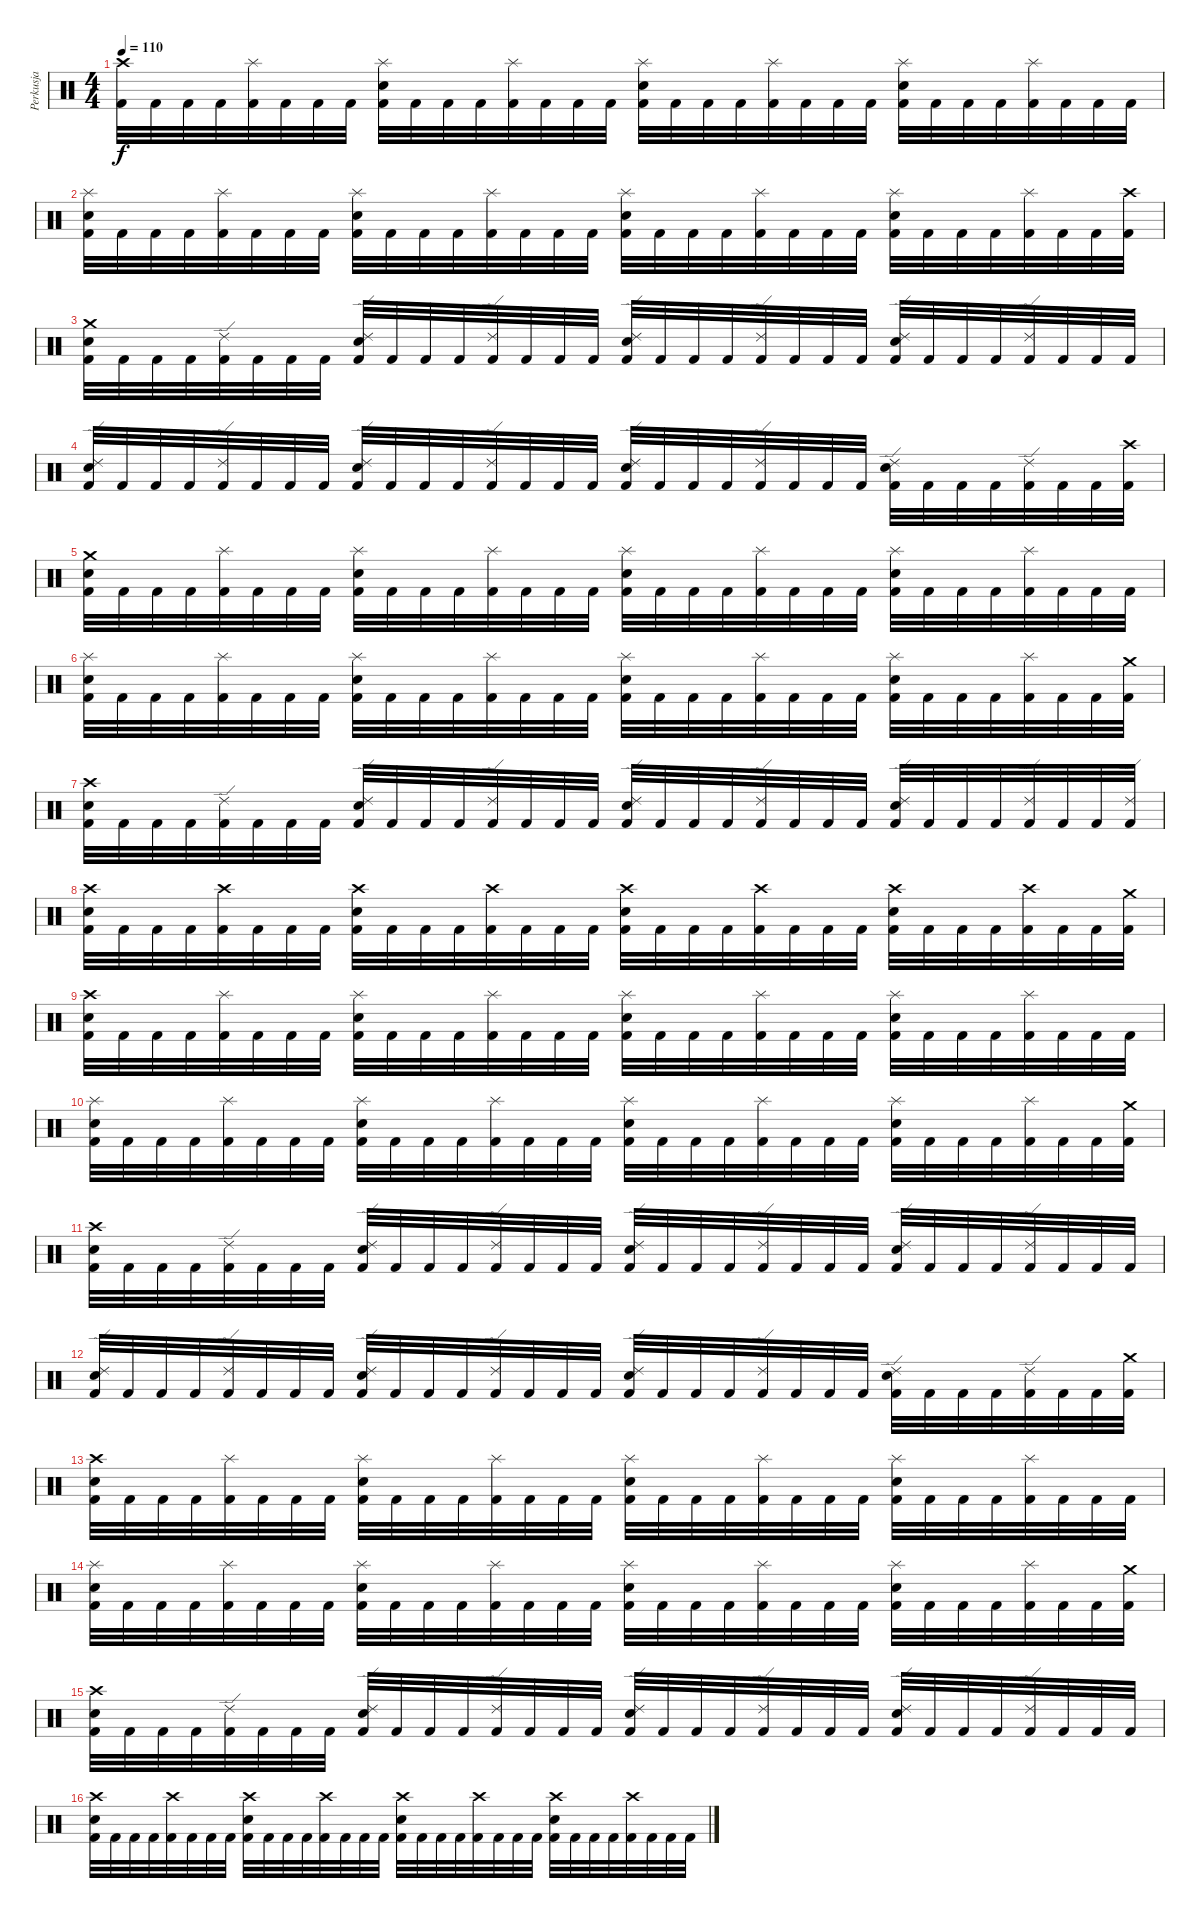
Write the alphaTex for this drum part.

\track ("Perkusja" "Perkusja") {instrument percussion}
\staff {score}
\articulation defaults
\ts (4 4)
\tempo 110
\clef neutral
\ks c
("Crash high (hit)" "Kick (hit) 2").32{dy f} "Kick (hit) 2".32 "Kick (hit) 2".32 "Kick (hit) 2".32 ("Splash (hit)" "Kick (hit) 2").32 "Kick (hit) 2".32 "Kick (hit) 2".32 "Kick (hit) 2".32 ("Splash (hit)" "Snare (hit) 2" "Kick (hit) 2").32 "Kick (hit) 2".32 "Kick (hit) 2".32 "Kick (hit) 2".32 ("Splash (hit)" "Kick (hit) 2").32 "Kick (hit) 2".32 "Kick (hit) 2".32 "Kick (hit) 2".32 ("Splash (hit)" "Snare (hit) 2" "Kick (hit) 2").32 "Kick (hit) 2".32 "Kick (hit) 2".32 "Kick (hit) 2".32 ("Splash (hit)" "Kick (hit) 2").32 "Kick (hit) 2".32 "Kick (hit) 2".32 "Kick (hit) 2".32 ("Splash (hit)" "Snare (hit) 2" "Kick (hit) 2").32 "Kick (hit) 2".32 "Kick (hit) 2".32 "Kick (hit) 2".32 ("Splash (hit)" "Kick (hit) 2").32 "Kick (hit) 2".32 "Kick (hit) 2".32 "Kick (hit) 2".32 |
("Splash (hit)" "Snare (hit) 2" "Kick (hit) 2").32 "Kick (hit) 2".32 "Kick (hit) 2".32 "Kick (hit) 2".32 ("Splash (hit)" "Kick (hit) 2").32 "Kick (hit) 2".32 "Kick (hit) 2".32 "Kick (hit) 2".32 ("Splash (hit)" "Snare (hit) 2" "Kick (hit) 2").32 "Kick (hit) 2".32 "Kick (hit) 2".32 "Kick (hit) 2".32 ("Splash (hit)" "Kick (hit) 2").32 "Kick (hit) 2".32 "Kick (hit) 2".32 "Kick (hit) 2".32 ("Splash (hit)" "Snare (hit) 2" "Kick (hit) 2").32 "Kick (hit) 2".32 "Kick (hit) 2".32 "Kick (hit) 2".32 ("Splash (hit)" "Kick (hit) 2").32 "Kick (hit) 2".32 "Kick (hit) 2".32 "Kick (hit) 2".32 ("Splash (hit)" "Snare (hit) 2" "Kick (hit) 2").32 "Kick (hit) 2".32 "Kick (hit) 2".32 "Kick (hit) 2".32 ("Splash (hit)" "Kick (hit) 2").32 "Kick (hit) 2".32 "Kick (hit) 2".32 ("Crash high (hit)" "Kick (hit) 2").32 |
("Crash medium (hit)" "Snare (hit) 2" "Kick (hit) 2").32 "Kick (hit) 2".32 "Kick (hit) 2".32 "Kick (hit) 2".32 ("Ride (edge) 2" "Kick (hit) 2").32 "Kick (hit) 2".32 "Kick (hit) 2".32 "Kick (hit) 2".32 ("Ride (edge) 2" "Snare (hit) 2" "Kick (hit) 2").32 "Kick (hit) 2".32 "Kick (hit) 2".32 "Kick (hit) 2".32 ("Ride (edge) 2" "Kick (hit) 2").32 "Kick (hit) 2".32 "Kick (hit) 2".32 "Kick (hit) 2".32 ("Ride (edge) 2" "Snare (hit) 2" "Kick (hit) 2").32 "Kick (hit) 2".32 "Kick (hit) 2".32 "Kick (hit) 2".32 ("Ride (edge) 2" "Kick (hit) 2").32 "Kick (hit) 2".32 "Kick (hit) 2".32 "Kick (hit) 2".32 ("Ride (edge) 2" "Snare (hit) 2" "Kick (hit) 2").32 "Kick (hit) 2".32 "Kick (hit) 2".32 "Kick (hit) 2".32 ("Ride (edge) 2" "Kick (hit) 2").32 "Kick (hit) 2".32 "Kick (hit) 2".32 "Kick (hit) 2".32 |
("Ride (edge) 2" "Snare (hit) 2" "Kick (hit) 2").32 "Kick (hit) 2".32 "Kick (hit) 2".32 "Kick (hit) 2".32 ("Ride (edge) 2" "Kick (hit) 2").32 "Kick (hit) 2".32 "Kick (hit) 2".32 "Kick (hit) 2".32 ("Ride (edge) 2" "Snare (hit) 2" "Kick (hit) 2").32 "Kick (hit) 2".32 "Kick (hit) 2".32 "Kick (hit) 2".32 ("Ride (edge) 2" "Kick (hit) 2").32 "Kick (hit) 2".32 "Kick (hit) 2".32 "Kick (hit) 2".32 ("Ride (edge) 2" "Snare (hit) 2" "Kick (hit) 2").32 "Kick (hit) 2".32 "Kick (hit) 2".32 "Kick (hit) 2".32 ("Ride (edge) 2" "Kick (hit) 2").32 "Kick (hit) 2".32 "Kick (hit) 2".32 "Kick (hit) 2".32 ("Ride (edge) 2" "Snare (hit) 2" "Kick (hit) 2").32 "Kick (hit) 2".32 "Kick (hit) 2".32 "Kick (hit) 2".32 ("Ride (edge) 2" "Kick (hit) 2").32 "Kick (hit) 2".32 "Kick (hit) 2".32 ("Crash high (hit)" "Kick (hit) 2").32 |
("Crash medium (hit)" "Snare (hit) 2" "Kick (hit) 2").32 "Kick (hit) 2".32 "Kick (hit) 2".32 "Kick (hit) 2".32 ("Splash (hit)" "Kick (hit) 2").32 "Kick (hit) 2".32 "Kick (hit) 2".32 "Kick (hit) 2".32 ("Splash (hit)" "Snare (hit) 2" "Kick (hit) 2").32 "Kick (hit) 2".32 "Kick (hit) 2".32 "Kick (hit) 2".32 ("Splash (hit)" "Kick (hit) 2").32 "Kick (hit) 2".32 "Kick (hit) 2".32 "Kick (hit) 2".32 ("Splash (hit)" "Snare (hit) 2" "Kick (hit) 2").32 "Kick (hit) 2".32 "Kick (hit) 2".32 "Kick (hit) 2".32 ("Splash (hit)" "Kick (hit) 2").32 "Kick (hit) 2".32 "Kick (hit) 2".32 "Kick (hit) 2".32 ("Splash (hit)" "Snare (hit) 2" "Kick (hit) 2").32 "Kick (hit) 2".32 "Kick (hit) 2".32 "Kick (hit) 2".32 ("Splash (hit)" "Kick (hit) 2").32 "Kick (hit) 2".32 "Kick (hit) 2".32 "Kick (hit) 2".32 |
("Splash (hit)" "Snare (hit) 2" "Kick (hit) 2").32 "Kick (hit) 2".32 "Kick (hit) 2".32 "Kick (hit) 2".32 ("Splash (hit)" "Kick (hit) 2").32 "Kick (hit) 2".32 "Kick (hit) 2".32 "Kick (hit) 2".32 ("Splash (hit)" "Snare (hit) 2" "Kick (hit) 2").32 "Kick (hit) 2".32 "Kick (hit) 2".32 "Kick (hit) 2".32 ("Splash (hit)" "Kick (hit) 2").32 "Kick (hit) 2".32 "Kick (hit) 2".32 "Kick (hit) 2".32 ("Splash (hit)" "Snare (hit) 2" "Kick (hit) 2").32 "Kick (hit) 2".32 "Kick (hit) 2".32 "Kick (hit) 2".32 ("Splash (hit)" "Kick (hit) 2").32 "Kick (hit) 2".32 "Kick (hit) 2".32 "Kick (hit) 2".32 ("Splash (hit)" "Snare (hit) 2" "Kick (hit) 2").32 "Kick (hit) 2".32 "Kick (hit) 2".32 "Kick (hit) 2".32 ("Splash (hit)" "Kick (hit) 2").32 "Kick (hit) 2".32 "Kick (hit) 2".32 ("Crash medium (hit)" "Kick (hit) 2").32 |
("Crash high (hit)" "Snare (hit) 2" "Kick (hit) 2").32 "Kick (hit) 2".32 "Kick (hit) 2".32 "Kick (hit) 2".32 ("Ride (edge) 2" "Kick (hit) 2").32 "Kick (hit) 2".32 "Kick (hit) 2".32 "Kick (hit) 2".32 ("Ride (edge) 2" "Snare (hit) 2" "Kick (hit) 2").32 "Kick (hit) 2".32 "Kick (hit) 2".32 "Kick (hit) 2".32 ("Ride (edge) 2" "Kick (hit) 2").32 "Kick (hit) 2".32 "Kick (hit) 2".32 "Kick (hit) 2".32 ("Ride (edge) 2" "Snare (hit) 2" "Kick (hit) 2").32 "Kick (hit) 2".32 "Kick (hit) 2".32 "Kick (hit) 2".32 ("Ride (edge) 2" "Kick (hit) 2").32 "Kick (hit) 2".32 "Kick (hit) 2".32 "Kick (hit) 2".32 ("Ride (edge) 2" "Snare (hit) 2" "Kick (hit) 2").32 "Kick (hit) 2".32 "Kick (hit) 2".32 "Kick (hit) 2".32 ("Ride (edge) 2" "Kick (hit) 2").32 "Kick (hit) 2".32 "Kick (hit) 2".32 ("Ride (edge) 2" "Kick (hit) 2").32 |
("Crash high (hit)" "Snare (hit) 2" "Kick (hit) 2").32 "Kick (hit) 2".32 "Kick (hit) 2".32 "Kick (hit) 2".32 ("Crash high (hit)" "Kick (hit) 2").32 "Kick (hit) 2".32 "Kick (hit) 2".32 "Kick (hit) 2".32 ("Crash high (hit)" "Snare (hit) 2" "Kick (hit) 2").32 "Kick (hit) 2".32 "Kick (hit) 2".32 "Kick (hit) 2".32 ("Crash high (hit)" "Kick (hit) 2").32 "Kick (hit) 2".32 "Kick (hit) 2".32 "Kick (hit) 2".32 ("Crash high (hit)" "Snare (hit) 2" "Kick (hit) 2").32 "Kick (hit) 2".32 "Kick (hit) 2".32 "Kick (hit) 2".32 ("Crash high (hit)" "Kick (hit) 2").32 "Kick (hit) 2".32 "Kick (hit) 2".32 "Kick (hit) 2".32 ("Crash high (hit)" "Snare (hit) 2" "Kick (hit) 2").32 "Kick (hit) 2".32 "Kick (hit) 2".32 "Kick (hit) 2".32 ("Crash high (hit)" "Kick (hit) 2").32 "Kick (hit) 2".32 "Kick (hit) 2".32 ("Crash medium (hit)" "Kick (hit) 2").32 |
("Crash high (hit)" "Snare (hit) 2" "Kick (hit) 2").32 "Kick (hit) 2".32 "Kick (hit) 2".32 "Kick (hit) 2".32 ("Splash (hit)" "Kick (hit) 2").32 "Kick (hit) 2".32 "Kick (hit) 2".32 "Kick (hit) 2".32 ("Splash (hit)" "Snare (hit) 2" "Kick (hit) 2").32 "Kick (hit) 2".32 "Kick (hit) 2".32 "Kick (hit) 2".32 ("Splash (hit)" "Kick (hit) 2").32 "Kick (hit) 2".32 "Kick (hit) 2".32 "Kick (hit) 2".32 ("Splash (hit)" "Snare (hit) 2" "Kick (hit) 2").32 "Kick (hit) 2".32 "Kick (hit) 2".32 "Kick (hit) 2".32 ("Splash (hit)" "Kick (hit) 2").32 "Kick (hit) 2".32 "Kick (hit) 2".32 "Kick (hit) 2".32 ("Splash (hit)" "Snare (hit) 2" "Kick (hit) 2").32 "Kick (hit) 2".32 "Kick (hit) 2".32 "Kick (hit) 2".32 ("Splash (hit)" "Kick (hit) 2").32 "Kick (hit) 2".32 "Kick (hit) 2".32 "Kick (hit) 2".32 |
("Splash (hit)" "Snare (hit) 2" "Kick (hit) 2").32 "Kick (hit) 2".32 "Kick (hit) 2".32 "Kick (hit) 2".32 ("Splash (hit)" "Kick (hit) 2").32 "Kick (hit) 2".32 "Kick (hit) 2".32 "Kick (hit) 2".32 ("Splash (hit)" "Snare (hit) 2" "Kick (hit) 2").32 "Kick (hit) 2".32 "Kick (hit) 2".32 "Kick (hit) 2".32 ("Splash (hit)" "Kick (hit) 2").32 "Kick (hit) 2".32 "Kick (hit) 2".32 "Kick (hit) 2".32 ("Splash (hit)" "Snare (hit) 2" "Kick (hit) 2").32 "Kick (hit) 2".32 "Kick (hit) 2".32 "Kick (hit) 2".32 ("Splash (hit)" "Kick (hit) 2").32 "Kick (hit) 2".32 "Kick (hit) 2".32 "Kick (hit) 2".32 ("Splash (hit)" "Snare (hit) 2" "Kick (hit) 2").32 "Kick (hit) 2".32 "Kick (hit) 2".32 "Kick (hit) 2".32 ("Splash (hit)" "Kick (hit) 2").32 "Kick (hit) 2".32 "Kick (hit) 2".32 ("Crash medium (hit)" "Kick (hit) 2").32 |
("Crash high (hit)" "Snare (hit) 2" "Kick (hit) 2").32 "Kick (hit) 2".32 "Kick (hit) 2".32 "Kick (hit) 2".32 ("Ride (edge) 2" "Kick (hit) 2").32 "Kick (hit) 2".32 "Kick (hit) 2".32 "Kick (hit) 2".32 ("Ride (edge) 2" "Snare (hit) 2" "Kick (hit) 2").32 "Kick (hit) 2".32 "Kick (hit) 2".32 "Kick (hit) 2".32 ("Ride (edge) 2" "Kick (hit) 2").32 "Kick (hit) 2".32 "Kick (hit) 2".32 "Kick (hit) 2".32 ("Ride (edge) 2" "Snare (hit) 2" "Kick (hit) 2").32 "Kick (hit) 2".32 "Kick (hit) 2".32 "Kick (hit) 2".32 ("Ride (edge) 2" "Kick (hit) 2").32 "Kick (hit) 2".32 "Kick (hit) 2".32 "Kick (hit) 2".32 ("Ride (edge) 2" "Snare (hit) 2" "Kick (hit) 2").32 "Kick (hit) 2".32 "Kick (hit) 2".32 "Kick (hit) 2".32 ("Ride (edge) 2" "Kick (hit) 2").32 "Kick (hit) 2".32 "Kick (hit) 2".32 "Kick (hit) 2".32 |
("Ride (edge) 2" "Snare (hit) 2" "Kick (hit) 2").32 "Kick (hit) 2".32 "Kick (hit) 2".32 "Kick (hit) 2".32 ("Ride (edge) 2" "Kick (hit) 2").32 "Kick (hit) 2".32 "Kick (hit) 2".32 "Kick (hit) 2".32 ("Ride (edge) 2" "Snare (hit) 2" "Kick (hit) 2").32 "Kick (hit) 2".32 "Kick (hit) 2".32 "Kick (hit) 2".32 ("Ride (edge) 2" "Kick (hit) 2").32 "Kick (hit) 2".32 "Kick (hit) 2".32 "Kick (hit) 2".32 ("Ride (edge) 2" "Snare (hit) 2" "Kick (hit) 2").32 "Kick (hit) 2".32 "Kick (hit) 2".32 "Kick (hit) 2".32 ("Ride (edge) 2" "Kick (hit) 2").32 "Kick (hit) 2".32 "Kick (hit) 2".32 "Kick (hit) 2".32 ("Ride (edge) 2" "Snare (hit) 2" "Kick (hit) 2").32 "Kick (hit) 2".32 "Kick (hit) 2".32 "Kick (hit) 2".32 ("Ride (edge) 2" "Kick (hit) 2").32 "Kick (hit) 2".32 "Kick (hit) 2".32 ("Crash medium (hit)" "Kick (hit) 2").32 |
("Crash high (hit)" "Snare (hit) 2" "Kick (hit) 2").32 "Kick (hit) 2".32 "Kick (hit) 2".32 "Kick (hit) 2".32 ("Splash (hit)" "Kick (hit) 2").32 "Kick (hit) 2".32 "Kick (hit) 2".32 "Kick (hit) 2".32 ("Splash (hit)" "Snare (hit) 2" "Kick (hit) 2").32 "Kick (hit) 2".32 "Kick (hit) 2".32 "Kick (hit) 2".32 ("Splash (hit)" "Kick (hit) 2").32 "Kick (hit) 2".32 "Kick (hit) 2".32 "Kick (hit) 2".32 ("Splash (hit)" "Snare (hit) 2" "Kick (hit) 2").32 "Kick (hit) 2".32 "Kick (hit) 2".32 "Kick (hit) 2".32 ("Splash (hit)" "Kick (hit) 2").32 "Kick (hit) 2".32 "Kick (hit) 2".32 "Kick (hit) 2".32 ("Splash (hit)" "Snare (hit) 2" "Kick (hit) 2").32 "Kick (hit) 2".32 "Kick (hit) 2".32 "Kick (hit) 2".32 ("Splash (hit)" "Kick (hit) 2").32 "Kick (hit) 2".32 "Kick (hit) 2".32 "Kick (hit) 2".32 |
("Splash (hit)" "Snare (hit) 2" "Kick (hit) 2").32 "Kick (hit) 2".32 "Kick (hit) 2".32 "Kick (hit) 2".32 ("Splash (hit)" "Kick (hit) 2").32 "Kick (hit) 2".32 "Kick (hit) 2".32 "Kick (hit) 2".32 ("Splash (hit)" "Snare (hit) 2" "Kick (hit) 2").32 "Kick (hit) 2".32 "Kick (hit) 2".32 "Kick (hit) 2".32 ("Splash (hit)" "Kick (hit) 2").32 "Kick (hit) 2".32 "Kick (hit) 2".32 "Kick (hit) 2".32 ("Splash (hit)" "Snare (hit) 2" "Kick (hit) 2").32 "Kick (hit) 2".32 "Kick (hit) 2".32 "Kick (hit) 2".32 ("Splash (hit)" "Kick (hit) 2").32 "Kick (hit) 2".32 "Kick (hit) 2".32 "Kick (hit) 2".32 ("Splash (hit)" "Snare (hit) 2" "Kick (hit) 2").32 "Kick (hit) 2".32 "Kick (hit) 2".32 "Kick (hit) 2".32 ("Splash (hit)" "Kick (hit) 2").32 "Kick (hit) 2".32 "Kick (hit) 2".32 ("Crash medium (hit)" "Kick (hit) 2").32 |
("Crash high (hit)" "Snare (hit) 2" "Kick (hit) 2").32 "Kick (hit) 2".32 "Kick (hit) 2".32 "Kick (hit) 2".32 ("Ride (edge) 2" "Kick (hit) 2").32 "Kick (hit) 2".32 "Kick (hit) 2".32 "Kick (hit) 2".32 ("Ride (edge) 2" "Snare (hit) 2" "Kick (hit) 2").32 "Kick (hit) 2".32 "Kick (hit) 2".32 "Kick (hit) 2".32 ("Ride (edge) 2" "Kick (hit) 2").32 "Kick (hit) 2".32 "Kick (hit) 2".32 "Kick (hit) 2".32 ("Ride (edge) 2" "Snare (hit) 2" "Kick (hit) 2").32 "Kick (hit) 2".32 "Kick (hit) 2".32 "Kick (hit) 2".32 ("Ride (edge) 2" "Kick (hit) 2").32 "Kick (hit) 2".32 "Kick (hit) 2".32 "Kick (hit) 2".32 ("Ride (edge) 2" "Snare (hit) 2" "Kick (hit) 2").32 "Kick (hit) 2".32 "Kick (hit) 2".32 "Kick (hit) 2".32 ("Ride (edge) 2" "Kick (hit) 2").32 "Kick (hit) 2".32 "Kick (hit) 2".32 "Kick (hit) 2".32 |
("Crash high (hit)" "Snare (hit) 2" "Kick (hit) 2").32 "Kick (hit) 2".32 "Kick (hit) 2".32 "Kick (hit) 2".32 ("Crash high (hit)" "Kick (hit) 2").32 "Kick (hit) 2".32 "Kick (hit) 2".32 "Kick (hit) 2".32 ("Crash high (hit)" "Snare (hit) 2" "Kick (hit) 2").32 "Kick (hit) 2".32 "Kick (hit) 2".32 "Kick (hit) 2".32 ("Crash high (hit)" "Kick (hit) 2").32 "Kick (hit) 2".32 "Kick (hit) 2".32 "Kick (hit) 2".32 ("Crash high (hit)" "Snare (hit) 2" "Kick (hit) 2").32 "Kick (hit) 2".32 "Kick (hit) 2".32 "Kick (hit) 2".32 ("Crash high (hit)" "Kick (hit) 2").32 "Kick (hit) 2".32 "Kick (hit) 2".32 "Kick (hit) 2".32 ("Crash high (hit)" "Snare (hit) 2" "Kick (hit) 2").32 "Kick (hit) 2".32 "Kick (hit) 2".32 "Kick (hit) 2".32 ("Crash high (hit)" "Kick (hit) 2").32 "Kick (hit) 2".32 "Kick (hit) 2".32 "Kick (hit) 2".32
